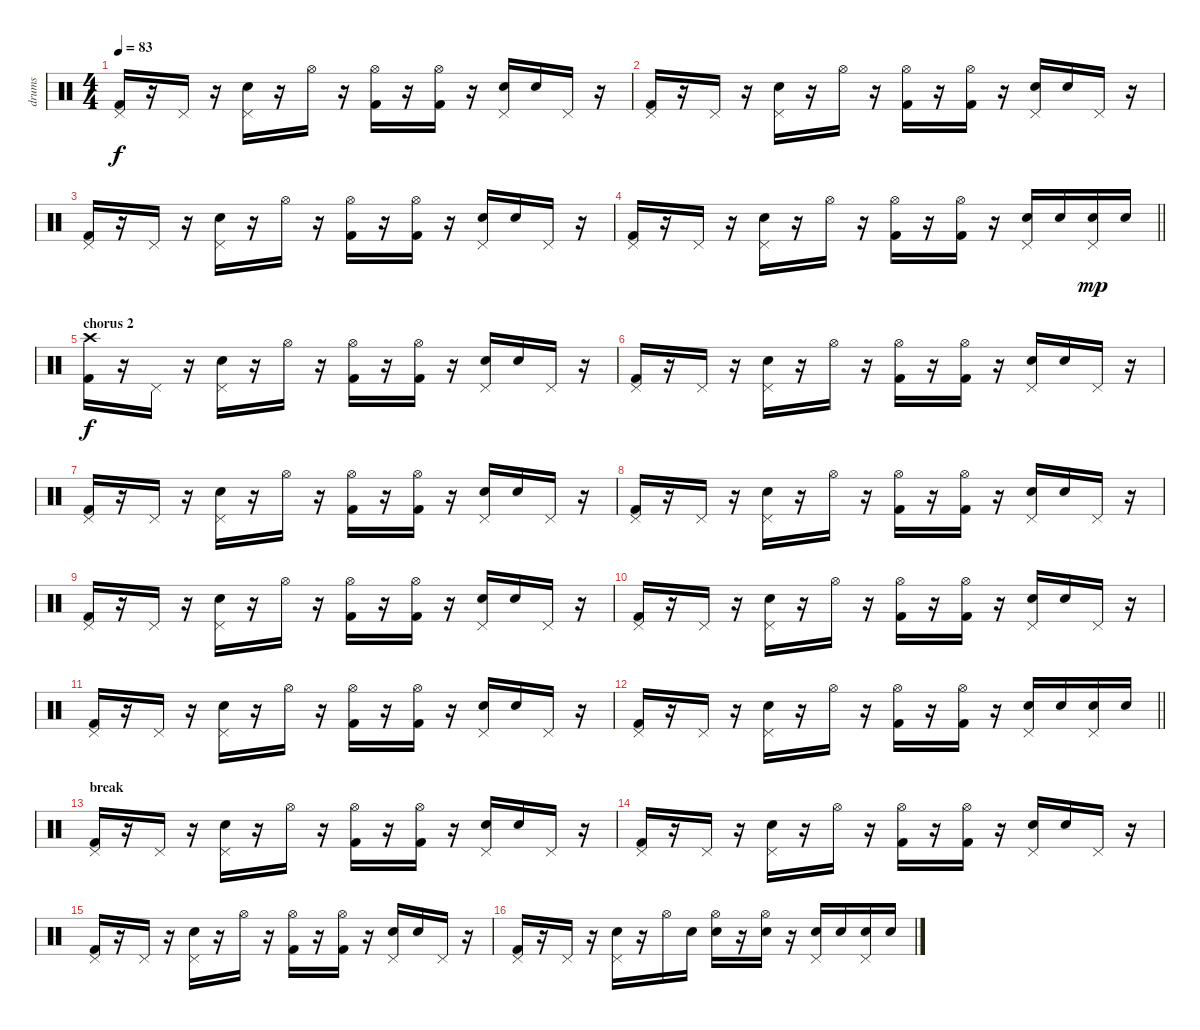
\track ("drums" "drums") {instrument percussion}
\staff {score}
\articulation defaults
\ts (4 4)
\tempo 83
\clef neutral
\ks c
("Kick (hit) 2" "Pedal Hi-Hat (hit)").16{dy f} r.16 "Pedal Hi-Hat (hit)".16 r.16 ("Electric Snare (hit)" "Pedal Hi-Hat (hit)").16 r.16 "Hi-Hat (open)".16 r.16 ("Kick (hit) 2" "Hi-Hat (open)").16 r.16 ("Kick (hit) 2" "Hi-Hat (open)").16 r.16 ("Electric Snare (hit)" "Pedal Hi-Hat (hit)").16 "Electric Snare (hit)".16 "Pedal Hi-Hat (hit)".16 r.16 |
("Kick (hit) 2" "Pedal Hi-Hat (hit)").16 r.16 "Pedal Hi-Hat (hit)".16 r.16 ("Electric Snare (hit)" "Pedal Hi-Hat (hit)").16 r.16 "Hi-Hat (open)".16 r.16 ("Kick (hit) 2" "Hi-Hat (open)").16 r.16 ("Kick (hit) 2" "Hi-Hat (open)").16 r.16 ("Electric Snare (hit)" "Pedal Hi-Hat (hit)").16 "Electric Snare (hit)".16 "Pedal Hi-Hat (hit)".16 r.16 |
("Kick (hit) 2" "Pedal Hi-Hat (hit)").16 r.16 "Pedal Hi-Hat (hit)".16 r.16 ("Electric Snare (hit)" "Pedal Hi-Hat (hit)").16 r.16 "Hi-Hat (open)".16 r.16 ("Kick (hit) 2" "Hi-Hat (open)").16 r.16 ("Kick (hit) 2" "Hi-Hat (open)").16 r.16 ("Electric Snare (hit)" "Pedal Hi-Hat (hit)").16 "Electric Snare (hit)".16 "Pedal Hi-Hat (hit)".16 r.16 |
\barLineRight lightlight
("Kick (hit) 2" "Pedal Hi-Hat (hit)").16 r.16 "Pedal Hi-Hat (hit)".16 r.16 ("Electric Snare (hit)" "Pedal Hi-Hat (hit)").16 r.16 "Hi-Hat (open)".16 r.16 ("Kick (hit) 2" "Hi-Hat (open)").16 r.16 ("Kick (hit) 2" "Hi-Hat (open)").16 r.16 ("Electric Snare (hit)" "Pedal Hi-Hat (hit)").16 "Electric Snare (hit)".16 ("Electric Snare (hit)" "Pedal Hi-Hat (hit)").16{dy mp} "Electric Snare (hit)".16 |
\section ("" "chorus 2")
("Kick (hit) 2" "Crash high (hit)").16{dy f} r.16 "Pedal Hi-Hat (hit)".16 r.16 ("Electric Snare (hit)" "Pedal Hi-Hat (hit)").16 r.16 "Hi-Hat (open)".16 r.16 ("Kick (hit) 2" "Hi-Hat (open)").16 r.16 ("Kick (hit) 2" "Hi-Hat (open)").16 r.16 ("Electric Snare (hit)" "Pedal Hi-Hat (hit)").16 "Electric Snare (hit)".16 "Pedal Hi-Hat (hit)".16 r.16 |
("Kick (hit) 2" "Pedal Hi-Hat (hit)").16 r.16 "Pedal Hi-Hat (hit)".16 r.16 ("Electric Snare (hit)" "Pedal Hi-Hat (hit)").16 r.16 "Hi-Hat (open)".16 r.16 ("Kick (hit) 2" "Hi-Hat (open)").16 r.16 ("Kick (hit) 2" "Hi-Hat (open)").16 r.16 ("Electric Snare (hit)" "Pedal Hi-Hat (hit)").16 "Electric Snare (hit)".16 "Pedal Hi-Hat (hit)".16 r.16 |
("Kick (hit) 2" "Pedal Hi-Hat (hit)").16 r.16 "Pedal Hi-Hat (hit)".16 r.16 ("Electric Snare (hit)" "Pedal Hi-Hat (hit)").16 r.16 "Hi-Hat (open)".16 r.16 ("Kick (hit) 2" "Hi-Hat (open)").16 r.16 ("Kick (hit) 2" "Hi-Hat (open)").16 r.16 ("Electric Snare (hit)" "Pedal Hi-Hat (hit)").16 "Electric Snare (hit)".16 "Pedal Hi-Hat (hit)".16 r.16 |
("Kick (hit) 2" "Pedal Hi-Hat (hit)").16 r.16 "Pedal Hi-Hat (hit)".16 r.16 ("Electric Snare (hit)" "Pedal Hi-Hat (hit)").16 r.16 "Hi-Hat (open)".16 r.16 ("Kick (hit) 2" "Hi-Hat (open)").16 r.16 ("Kick (hit) 2" "Hi-Hat (open)").16 r.16 ("Electric Snare (hit)" "Pedal Hi-Hat (hit)").16 "Electric Snare (hit)".16 "Pedal Hi-Hat (hit)".16 r.16 |
("Kick (hit) 2" "Pedal Hi-Hat (hit)").16 r.16 "Pedal Hi-Hat (hit)".16 r.16 ("Electric Snare (hit)" "Pedal Hi-Hat (hit)").16 r.16 "Hi-Hat (open)".16 r.16 ("Kick (hit) 2" "Hi-Hat (open)").16 r.16 ("Kick (hit) 2" "Hi-Hat (open)").16 r.16 ("Electric Snare (hit)" "Pedal Hi-Hat (hit)").16 "Electric Snare (hit)".16 "Pedal Hi-Hat (hit)".16 r.16 |
("Kick (hit) 2" "Pedal Hi-Hat (hit)").16 r.16 "Pedal Hi-Hat (hit)".16 r.16 ("Electric Snare (hit)" "Pedal Hi-Hat (hit)").16 r.16 "Hi-Hat (open)".16 r.16 ("Kick (hit) 2" "Hi-Hat (open)").16 r.16 ("Kick (hit) 2" "Hi-Hat (open)").16 r.16 ("Electric Snare (hit)" "Pedal Hi-Hat (hit)").16 "Electric Snare (hit)".16 "Pedal Hi-Hat (hit)".16 r.16 |
("Kick (hit) 2" "Pedal Hi-Hat (hit)").16 r.16 "Pedal Hi-Hat (hit)".16 r.16 ("Electric Snare (hit)" "Pedal Hi-Hat (hit)").16 r.16 "Hi-Hat (open)".16 r.16 ("Kick (hit) 2" "Hi-Hat (open)").16 r.16 ("Kick (hit) 2" "Hi-Hat (open)").16 r.16 ("Electric Snare (hit)" "Pedal Hi-Hat (hit)").16 "Electric Snare (hit)".16 "Pedal Hi-Hat (hit)".16 r.16 |
\barLineRight lightlight
("Kick (hit) 2" "Pedal Hi-Hat (hit)").16 r.16 "Pedal Hi-Hat (hit)".16 r.16 ("Electric Snare (hit)" "Pedal Hi-Hat (hit)").16 r.16 "Hi-Hat (open)".16 r.16 ("Kick (hit) 2" "Hi-Hat (open)").16 r.16 ("Kick (hit) 2" "Hi-Hat (open)").16 r.16 ("Electric Snare (hit)" "Pedal Hi-Hat (hit)").16 "Electric Snare (hit)".16 ("Electric Snare (hit)" "Pedal Hi-Hat (hit)").16 "Electric Snare (hit)".16 |
\section ("" "break ")
("Kick (hit) 2" "Pedal Hi-Hat (hit)").16 r.16 "Pedal Hi-Hat (hit)".16 r.16 ("Electric Snare (hit)" "Pedal Hi-Hat (hit)").16 r.16 "Hi-Hat (open)".16 r.16 ("Kick (hit) 2" "Hi-Hat (open)").16 r.16 ("Kick (hit) 2" "Hi-Hat (open)").16 r.16 ("Electric Snare (hit)" "Pedal Hi-Hat (hit)").16 "Electric Snare (hit)".16 "Pedal Hi-Hat (hit)".16 r.16 |
("Kick (hit) 2" "Pedal Hi-Hat (hit)").16 r.16 "Pedal Hi-Hat (hit)".16 r.16 ("Electric Snare (hit)" "Pedal Hi-Hat (hit)").16 r.16 "Hi-Hat (open)".16 r.16 ("Kick (hit) 2" "Hi-Hat (open)").16 r.16 ("Kick (hit) 2" "Hi-Hat (open)").16 r.16 ("Electric Snare (hit)" "Pedal Hi-Hat (hit)").16 "Electric Snare (hit)".16 "Pedal Hi-Hat (hit)".16 r.16 |
("Kick (hit) 2" "Pedal Hi-Hat (hit)").16 r.16 "Pedal Hi-Hat (hit)".16 r.16 ("Electric Snare (hit)" "Pedal Hi-Hat (hit)").16 r.16 "Hi-Hat (open)".16 r.16 ("Kick (hit) 2" "Hi-Hat (open)").16 r.16 ("Kick (hit) 2" "Hi-Hat (open)").16 r.16 ("Electric Snare (hit)" "Pedal Hi-Hat (hit)").16 "Electric Snare (hit)".16 "Pedal Hi-Hat (hit)".16 r.16 |
("Kick (hit) 2" "Pedal Hi-Hat (hit)").16 r.16 "Pedal Hi-Hat (hit)".16 r.16 ("Electric Snare (hit)" "Pedal Hi-Hat (hit)").16 r.16 "Hi-Hat (open)".16 "Electric Snare (hit)".16 ("Electric Snare (hit)" "Hi-Hat (open)").16 r.16 ("Electric Snare (hit)" "Hi-Hat (open)").16 r.16 ("Electric Snare (hit)" "Pedal Hi-Hat (hit)").16 "Electric Snare (hit)".16 ("Electric Snare (hit)" "Pedal Hi-Hat (hit)").16 "Electric Snare (hit)".16
